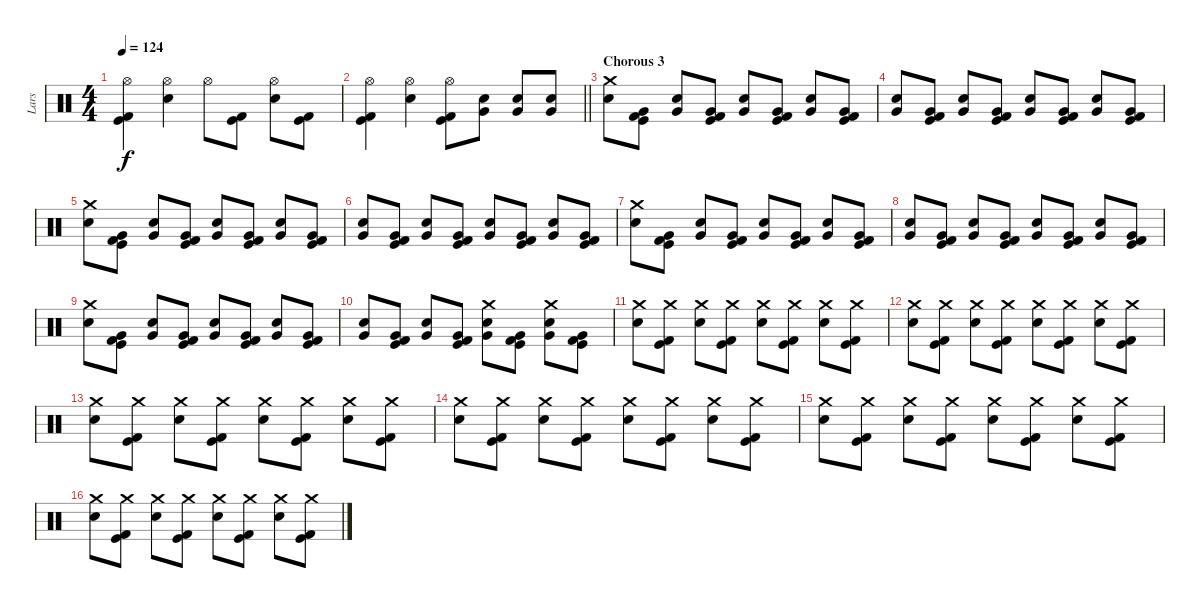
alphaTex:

\track ("Lars" "Lars") {instrument percussion}
\staff {score}
\articulation defaults
\ts (4 4)
\tempo 124
\clef neutral
\ks c
("Hi-Hat (open)" "Kick (hit)" "Kick (hit) 2").4{dy f} ("Hi-Hat (open)" "Electric Snare (hit)").4 "Hi-Hat (open)".8 ("Kick (hit)" "Kick (hit) 2").8 ("Hi-Hat (open)" "Electric Snare (hit)").8 ("Kick (hit)" "Kick (hit) 2").8 |
\barLineRight lightlight
("Hi-Hat (open)" "Kick (hit)" "Kick (hit) 2").4 ("Hi-Hat (open)" "Electric Snare (hit)").4 ("Hi-Hat (open)" "Kick (hit)" "Kick (hit) 2").8 ("Electric Snare (hit)" "Very Low Tom (hit)").8 ("Electric Snare (hit)" "Very Low Tom (hit)").8 ("Electric Snare (hit)" "Very Low Tom (hit)").8 |
\section ("" "Chorous 3")
("Crash medium (hit)" "Electric Snare (hit)").8 ("Kick (hit)" "Kick (hit) 2" "Very Low Tom (hit)").8 ("Electric Snare (hit)" "Very Low Tom (hit)").8 ("Kick (hit)" "Kick (hit) 2" "Very Low Tom (hit)").8 ("Electric Snare (hit)" "Very Low Tom (hit)").8 ("Kick (hit)" "Kick (hit) 2" "Very Low Tom (hit)").8 ("Electric Snare (hit)" "Very Low Tom (hit)").8 ("Kick (hit)" "Kick (hit) 2" "Very Low Tom (hit)").8 |
("Electric Snare (hit)" "Very Low Tom (hit)").8 ("Kick (hit)" "Kick (hit) 2" "Very Low Tom (hit)").8 ("Electric Snare (hit)" "Very Low Tom (hit)").8 ("Kick (hit)" "Kick (hit) 2" "Very Low Tom (hit)").8 ("Electric Snare (hit)" "Very Low Tom (hit)").8 ("Kick (hit)" "Kick (hit) 2" "Very Low Tom (hit)").8 ("Electric Snare (hit)" "Very Low Tom (hit)").8 ("Kick (hit)" "Kick (hit) 2" "Very Low Tom (hit)").8 |
("Crash medium (hit)" "Electric Snare (hit)").8 ("Kick (hit)" "Kick (hit) 2" "Very Low Tom (hit)").8 ("Electric Snare (hit)" "Very Low Tom (hit)").8 ("Kick (hit)" "Kick (hit) 2" "Very Low Tom (hit)").8 ("Electric Snare (hit)" "Very Low Tom (hit)").8 ("Kick (hit)" "Kick (hit) 2" "Very Low Tom (hit)").8 ("Electric Snare (hit)" "Very Low Tom (hit)").8 ("Kick (hit)" "Kick (hit) 2" "Very Low Tom (hit)").8 |
("Electric Snare (hit)" "Very Low Tom (hit)").8 ("Kick (hit)" "Kick (hit) 2" "Very Low Tom (hit)").8 ("Electric Snare (hit)" "Very Low Tom (hit)").8 ("Kick (hit)" "Kick (hit) 2" "Very Low Tom (hit)").8 ("Electric Snare (hit)" "Very Low Tom (hit)").8 ("Kick (hit)" "Kick (hit) 2" "Very Low Tom (hit)").8 ("Electric Snare (hit)" "Very Low Tom (hit)").8 ("Kick (hit)" "Kick (hit) 2" "Very Low Tom (hit)").8 |
("Crash medium (hit)" "Electric Snare (hit)").8 ("Kick (hit)" "Kick (hit) 2" "Very Low Tom (hit)").8 ("Electric Snare (hit)" "Very Low Tom (hit)").8 ("Kick (hit)" "Kick (hit) 2" "Very Low Tom (hit)").8 ("Electric Snare (hit)" "Very Low Tom (hit)").8 ("Kick (hit)" "Kick (hit) 2" "Very Low Tom (hit)").8 ("Electric Snare (hit)" "Very Low Tom (hit)").8 ("Kick (hit)" "Kick (hit) 2" "Very Low Tom (hit)").8 |
("Electric Snare (hit)" "Very Low Tom (hit)").8 ("Kick (hit)" "Kick (hit) 2" "Very Low Tom (hit)").8 ("Electric Snare (hit)" "Very Low Tom (hit)").8 ("Kick (hit)" "Kick (hit) 2" "Very Low Tom (hit)").8 ("Electric Snare (hit)" "Very Low Tom (hit)").8 ("Kick (hit)" "Kick (hit) 2" "Very Low Tom (hit)").8 ("Electric Snare (hit)" "Very Low Tom (hit)").8 ("Kick (hit)" "Kick (hit) 2" "Very Low Tom (hit)").8 |
("Crash medium (hit)" "Electric Snare (hit)").8 ("Kick (hit)" "Kick (hit) 2" "Very Low Tom (hit)").8 ("Electric Snare (hit)" "Very Low Tom (hit)").8 ("Kick (hit)" "Kick (hit) 2" "Very Low Tom (hit)").8 ("Electric Snare (hit)" "Very Low Tom (hit)").8 ("Kick (hit)" "Kick (hit) 2" "Very Low Tom (hit)").8 ("Electric Snare (hit)" "Very Low Tom (hit)").8 ("Kick (hit)" "Kick (hit) 2" "Very Low Tom (hit)").8 |
("Electric Snare (hit)" "Very Low Tom (hit)").8 ("Kick (hit)" "Kick (hit) 2" "Very Low Tom (hit)").8 ("Electric Snare (hit)" "Very Low Tom (hit)").8 ("Kick (hit)" "Kick (hit) 2" "Very Low Tom (hit)").8 ("Crash medium (hit)" "Electric Snare (hit)" "Very Low Tom (hit)").8 ("Kick (hit)" "Kick (hit) 2" "Very Low Tom (hit)").8 ("Crash medium (hit)" "Electric Snare (hit)" "Very Low Tom (hit)").8 ("Kick (hit)" "Kick (hit) 2" "Very Low Tom (hit)").8 |
("Crash medium (hit)" "Electric Snare (hit)").8 ("Crash medium (hit)" "Kick (hit)" "Kick (hit) 2").8 ("Crash medium (hit)" "Electric Snare (hit)").8 ("Crash medium (hit)" "Kick (hit)" "Kick (hit) 2").8 ("Crash medium (hit)" "Electric Snare (hit)").8 ("Crash medium (hit)" "Kick (hit)" "Kick (hit) 2").8 ("Crash medium (hit)" "Electric Snare (hit)").8 ("Crash medium (hit)" "Kick (hit)" "Kick (hit) 2").8 |
("Crash medium (hit)" "Electric Snare (hit)").8 ("Crash medium (hit)" "Kick (hit)" "Kick (hit) 2").8 ("Crash medium (hit)" "Electric Snare (hit)").8 ("Crash medium (hit)" "Kick (hit)" "Kick (hit) 2").8 ("Crash medium (hit)" "Electric Snare (hit)").8 ("Crash medium (hit)" "Kick (hit)" "Kick (hit) 2").8 ("Crash medium (hit)" "Electric Snare (hit)").8 ("Crash medium (hit)" "Kick (hit)" "Kick (hit) 2").8 |
("Crash medium (hit)" "Electric Snare (hit)").8 ("Crash medium (hit)" "Kick (hit)" "Kick (hit) 2").8 ("Crash medium (hit)" "Electric Snare (hit)").8 ("Crash medium (hit)" "Kick (hit)" "Kick (hit) 2").8 ("Crash medium (hit)" "Electric Snare (hit)").8 ("Crash medium (hit)" "Kick (hit)" "Kick (hit) 2").8 ("Crash medium (hit)" "Electric Snare (hit)").8 ("Crash medium (hit)" "Kick (hit)" "Kick (hit) 2").8 |
("Crash medium (hit)" "Electric Snare (hit)").8 ("Crash medium (hit)" "Kick (hit)" "Kick (hit) 2").8 ("Crash medium (hit)" "Electric Snare (hit)").8 ("Crash medium (hit)" "Kick (hit)" "Kick (hit) 2").8 ("Crash medium (hit)" "Electric Snare (hit)").8 ("Crash medium (hit)" "Kick (hit)" "Kick (hit) 2").8 ("Crash medium (hit)" "Electric Snare (hit)").8 ("Crash medium (hit)" "Kick (hit)" "Kick (hit) 2").8 |
("Crash medium (hit)" "Electric Snare (hit)").8 ("Crash medium (hit)" "Kick (hit)" "Kick (hit) 2").8 ("Crash medium (hit)" "Electric Snare (hit)").8 ("Crash medium (hit)" "Kick (hit)" "Kick (hit) 2").8 ("Crash medium (hit)" "Electric Snare (hit)").8 ("Crash medium (hit)" "Kick (hit)" "Kick (hit) 2").8 ("Crash medium (hit)" "Electric Snare (hit)").8 ("Crash medium (hit)" "Kick (hit)" "Kick (hit) 2").8 |
("Crash medium (hit)" "Electric Snare (hit)").8 ("Crash medium (hit)" "Kick (hit)" "Kick (hit) 2").8 ("Crash medium (hit)" "Electric Snare (hit)").8 ("Crash medium (hit)" "Kick (hit)" "Kick (hit) 2").8 ("Crash medium (hit)" "Electric Snare (hit)").8 ("Crash medium (hit)" "Kick (hit)" "Kick (hit) 2").8 ("Crash medium (hit)" "Electric Snare (hit)").8 ("Crash medium (hit)" "Kick (hit)" "Kick (hit) 2").8
